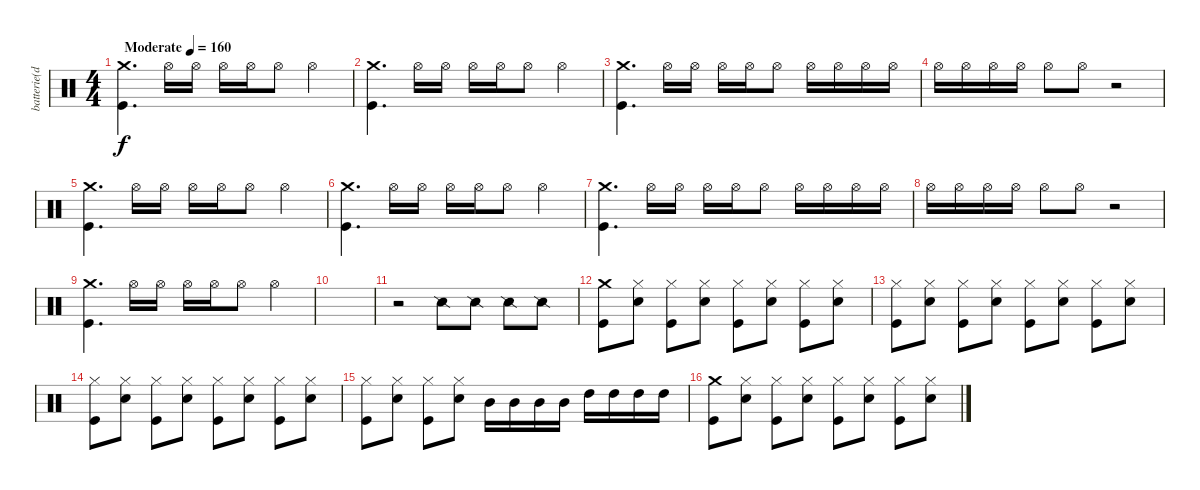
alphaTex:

\track ("batterie(dave)" "batterie(d") {instrument percussion}
\staff {score}
\articulation defaults
\ts (4 4)
\tempo (160 "Moderate")
\clef neutral
\ks c
("Crash medium (hit)" "Kick (hit)").4{d dy f} "Hi-Hat (open)".16 "Hi-Hat (open)".16 "Hi-Hat (open)".16 "Hi-Hat (open)".16 "Hi-Hat (open)".8 "Hi-Hat (open)".4 |
("Crash medium (hit)" "Kick (hit)").4{d} "Hi-Hat (open)".16 "Hi-Hat (open)".16 "Hi-Hat (open)".16 "Hi-Hat (open)".16 "Hi-Hat (open)".8 "Hi-Hat (open)".4 |
("Crash medium (hit)" "Kick (hit)").4{d} "Hi-Hat (open)".16 "Hi-Hat (open)".16 "Hi-Hat (open)".16 "Hi-Hat (open)".16 "Hi-Hat (open)".8 "Hi-Hat (open)".16 "Hi-Hat (open)".16 "Hi-Hat (open)".16 "Hi-Hat (open)".16 |
"Hi-Hat (open)".16 "Hi-Hat (open)".16 "Hi-Hat (open)".16 "Hi-Hat (open)".16 "Hi-Hat (open)".8 "Hi-Hat (open)".8 r.2 |
("Crash medium (hit)" "Kick (hit)").4{d} "Hi-Hat (open)".16 "Hi-Hat (open)".16 "Hi-Hat (open)".16 "Hi-Hat (open)".16 "Hi-Hat (open)".8 "Hi-Hat (open)".4 |
("Crash medium (hit)" "Kick (hit)").4{d} "Hi-Hat (open)".16 "Hi-Hat (open)".16 "Hi-Hat (open)".16 "Hi-Hat (open)".16 "Hi-Hat (open)".8 "Hi-Hat (open)".4 |
("Crash medium (hit)" "Kick (hit)").4{d} "Hi-Hat (open)".16 "Hi-Hat (open)".16 "Hi-Hat (open)".16 "Hi-Hat (open)".16 "Hi-Hat (open)".8 "Hi-Hat (open)".16 "Hi-Hat (open)".16 "Hi-Hat (open)".16 "Hi-Hat (open)".16 |
"Hi-Hat (open)".16 "Hi-Hat (open)".16 "Hi-Hat (open)".16 "Hi-Hat (open)".16 "Hi-Hat (open)".8 "Hi-Hat (open)".8 r.2 |
("Crash medium (hit)" "Kick (hit)").4{d} "Hi-Hat (open)".16 "Hi-Hat (open)".16 "Hi-Hat (open)".16 "Hi-Hat (open)".16 "Hi-Hat (open)".8 "Hi-Hat (open)".4 |
|
r.2 "Snare (side stick) 2".8 "Snare (side stick) 2".8 "Snare (side stick) 2".8 "Snare (side stick) 2".8 |
("Crash medium (hit)" "Kick (hit)").8 ("Hi-Hat (closed)" "Snare (hit) 2").8 ("Hi-Hat (closed)" "Kick (hit)").8 ("Hi-Hat (closed)" "Snare (hit) 2").8 ("Hi-Hat (closed)" "Kick (hit)").8 ("Hi-Hat (closed)" "Snare (hit) 2").8 ("Hi-Hat (closed)" "Kick (hit)").8 ("Hi-Hat (closed)" "Snare (hit) 2").8 |
("Hi-Hat (closed)" "Kick (hit)").8 ("Hi-Hat (closed)" "Snare (hit) 2").8 ("Hi-Hat (closed)" "Kick (hit)").8 ("Hi-Hat (closed)" "Snare (hit) 2").8 ("Hi-Hat (closed)" "Kick (hit)").8 ("Hi-Hat (closed)" "Snare (hit) 2").8 ("Hi-Hat (closed)" "Kick (hit)").8 ("Hi-Hat (closed)" "Snare (hit) 2").8 |
("Hi-Hat (closed)" "Kick (hit)").8 ("Hi-Hat (closed)" "Snare (hit) 2").8 ("Hi-Hat (closed)" "Kick (hit)").8 ("Hi-Hat (closed)" "Snare (hit) 2").8 ("Hi-Hat (closed)" "Kick (hit)").8 ("Hi-Hat (closed)" "Snare (hit) 2").8 ("Hi-Hat (closed)" "Kick (hit)").8 ("Hi-Hat (closed)" "Snare (hit) 2").8 |
("Hi-Hat (closed)" "Kick (hit)").8 ("Hi-Hat (closed)" "Snare (hit) 2").8 ("Hi-Hat (closed)" "Kick (hit)").8 ("Hi-Hat (closed)" "Snare (hit) 2").8 "Mid Tom (hit)".16 "Mid Tom (hit)".16 "Mid Tom (hit)".16 "Mid Tom (hit)".16 "High Tom (hit)".16 "High Tom (hit)".16 "High Tom (hit)".16 "High Tom (hit)".16 |
("Crash medium (hit)" "Kick (hit)").8 ("Hi-Hat (closed)" "Snare (hit) 2").8 ("Hi-Hat (closed)" "Kick (hit)").8 ("Hi-Hat (closed)" "Snare (hit) 2").8 ("Hi-Hat (closed)" "Kick (hit)").8 ("Hi-Hat (closed)" "Snare (hit) 2").8 ("Hi-Hat (closed)" "Kick (hit)").8 ("Hi-Hat (closed)" "Snare (hit) 2").8
